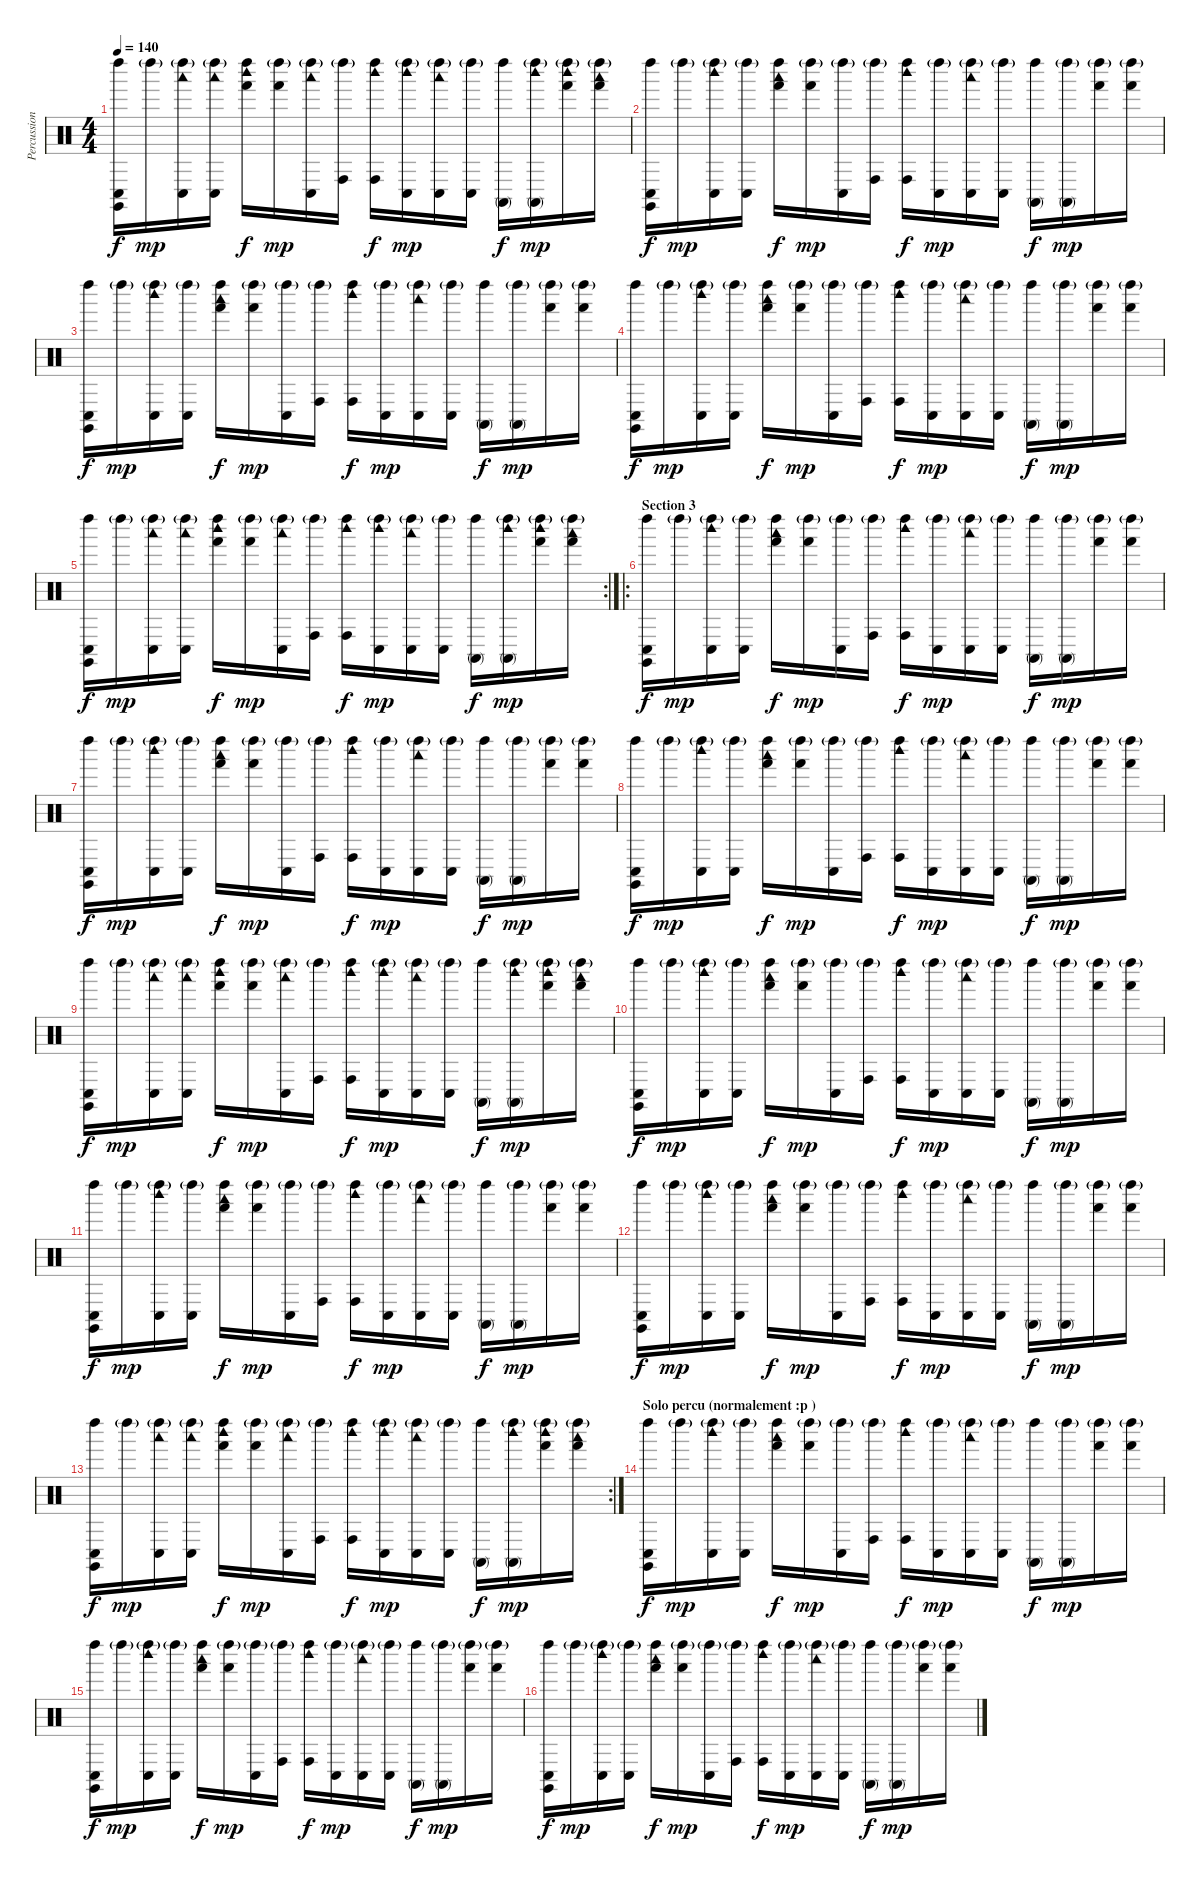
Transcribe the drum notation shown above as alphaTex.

\track ("Percussions" "Percussion") {instrument percussion}
\staff {score}
\articulation defaults
\ts (4 4)
\tempo 140
\clef neutral
\ks c
("Conga low (hit)" "Claves (hit)" "Left Maraca (hit)").16{dy f} "Left Maraca (hit)"{g}.16{dy mp} ("Conga low (hit)" "Woodblock low (hit)" "Left Maraca (hit)"{g}).16 ("Conga low (hit)" "Woodblock low (hit)" "Left Maraca (hit)"{g}).16 ("Hand (hit)" "Woodblock high (hit)" "Left Maraca (hit)").16{dy f} ("Hand (hit)" "Left Maraca (hit)"{g}).16{dy mp} ("Conga low (hit)" "Woodblock low (hit)" "Left Maraca (hit)"{g}).16 ("Conga high (hit)" "Left Maraca (hit)"{g}).16 ("Conga high (hit)" "Woodblock high (hit)" "Left Maraca (hit)").16{dy f} ("Conga low (hit)" "Woodblock high (hit)" "Left Maraca (hit)"{g}).16{dy mp} ("Conga low (hit)" "Woodblock low (hit)" "Left Maraca (hit)"{g}).16 ("Conga low (hit)" "Left Maraca (hit)"{g}).16 ("Conga high (mute)" "Left Maraca (hit)").16{dy f} ("Conga high (mute)" "Woodblock high (hit)" "Left Maraca (hit)"{g}).16{dy mp} ("Hand (hit)" "Woodblock high (hit)" "Left Maraca (hit)"{g}).16 ("Hand (hit)" "Woodblock low (hit)" "Left Maraca (hit)"{g}).16 |
("Conga low (hit)" "Claves (hit)" "Left Maraca (hit)").16{dy f} "Left Maraca (hit)"{g}.16{dy mp} ("Conga low (hit)" "Woodblock high (hit)" "Left Maraca (hit)"{g}).16 ("Conga low (hit)" "Left Maraca (hit)"{g}).16 ("Hand (hit)" "Woodblock low (hit)" "Left Maraca (hit)").16{dy f} ("Hand (hit)" "Left Maraca (hit)"{g}).16{dy mp} ("Conga low (hit)" "Left Maraca (hit)"{g}).16 ("Conga high (hit)" "Left Maraca (hit)"{g}).16 ("Conga high (hit)" "Woodblock high (hit)" "Left Maraca (hit)").16{dy f} ("Conga low (hit)" "Left Maraca (hit)"{g}).16{dy mp} ("Conga low (hit)" "Woodblock low (hit)" "Left Maraca (hit)"{g}).16 ("Conga low (hit)" "Left Maraca (hit)"{g}).16 ("Conga high (mute)" "Left Maraca (hit)").16{dy f} ("Conga high (mute)" "Left Maraca (hit)"{g}).16{dy mp} ("Hand (hit)" "Left Maraca (hit)"{g}).16 ("Hand (hit)" "Left Maraca (hit)"{g}).16 |
("Conga low (hit)" "Claves (hit)" "Left Maraca (hit)").16{dy f} "Left Maraca (hit)"{g}.16{dy mp} ("Conga low (hit)" "Woodblock high (hit)" "Left Maraca (hit)"{g}).16 ("Conga low (hit)" "Left Maraca (hit)"{g}).16 ("Hand (hit)" "Woodblock low (hit)" "Left Maraca (hit)").16{dy f} ("Hand (hit)" "Left Maraca (hit)"{g}).16{dy mp} ("Conga low (hit)" "Left Maraca (hit)"{g}).16 ("Conga high (hit)" "Left Maraca (hit)"{g}).16 ("Conga high (hit)" "Woodblock high (hit)" "Left Maraca (hit)").16{dy f} ("Conga low (hit)" "Left Maraca (hit)"{g}).16{dy mp} ("Conga low (hit)" "Woodblock low (hit)" "Left Maraca (hit)"{g}).16 ("Conga low (hit)" "Left Maraca (hit)"{g}).16 ("Conga high (mute)" "Left Maraca (hit)").16{dy f} ("Conga high (mute)" "Left Maraca (hit)"{g}).16{dy mp} ("Hand (hit)" "Left Maraca (hit)"{g}).16 ("Hand (hit)" "Left Maraca (hit)"{g}).16 |
("Conga low (hit)" "Claves (hit)" "Left Maraca (hit)").16{dy f} "Left Maraca (hit)"{g}.16{dy mp} ("Conga low (hit)" "Woodblock high (hit)" "Left Maraca (hit)"{g}).16 ("Conga low (hit)" "Left Maraca (hit)"{g}).16 ("Hand (hit)" "Woodblock low (hit)" "Left Maraca (hit)").16{dy f} ("Hand (hit)" "Left Maraca (hit)"{g}).16{dy mp} ("Conga low (hit)" "Left Maraca (hit)"{g}).16 ("Conga high (hit)" "Left Maraca (hit)"{g}).16 ("Conga high (hit)" "Woodblock high (hit)" "Left Maraca (hit)").16{dy f} ("Conga low (hit)" "Left Maraca (hit)"{g}).16{dy mp} ("Conga low (hit)" "Woodblock low (hit)" "Left Maraca (hit)"{g}).16 ("Conga low (hit)" "Left Maraca (hit)"{g}).16 ("Conga high (mute)" "Left Maraca (hit)").16{dy f} ("Conga high (mute)" "Left Maraca (hit)"{g}).16{dy mp} ("Hand (hit)" "Left Maraca (hit)"{g}).16 ("Hand (hit)" "Left Maraca (hit)"{g}).16 |
\rc 2
("Conga low (hit)" "Claves (hit)" "Left Maraca (hit)").16{dy f} "Left Maraca (hit)"{g}.16{dy mp} ("Conga low (hit)" "Woodblock low (hit)" "Left Maraca (hit)"{g}).16 ("Conga low (hit)" "Woodblock low (hit)" "Left Maraca (hit)"{g}).16 ("Hand (hit)" "Woodblock high (hit)" "Left Maraca (hit)").16{dy f} ("Hand (hit)" "Left Maraca (hit)"{g}).16{dy mp} ("Conga low (hit)" "Woodblock low (hit)" "Left Maraca (hit)"{g}).16 ("Conga high (hit)" "Left Maraca (hit)"{g}).16 ("Conga high (hit)" "Woodblock high (hit)" "Left Maraca (hit)").16{dy f} ("Conga low (hit)" "Woodblock high (hit)" "Left Maraca (hit)"{g}).16{dy mp} ("Conga low (hit)" "Woodblock low (hit)" "Left Maraca (hit)"{g}).16 ("Conga low (hit)" "Left Maraca (hit)"{g}).16 ("Conga high (mute)" "Left Maraca (hit)").16{dy f} ("Conga high (mute)" "Woodblock high (hit)" "Left Maraca (hit)"{g}).16{dy mp} ("Hand (hit)" "Woodblock high (hit)" "Left Maraca (hit)"{g}).16 ("Hand (hit)" "Woodblock low (hit)" "Left Maraca (hit)"{g}).16 |
\ro
\section ("" "Section 3")
("Conga low (hit)" "Claves (hit)" "Left Maraca (hit)").16{dy f} "Left Maraca (hit)"{g}.16{dy mp} ("Conga low (hit)" "Woodblock high (hit)" "Left Maraca (hit)"{g}).16 ("Conga low (hit)" "Left Maraca (hit)"{g}).16 ("Hand (hit)" "Woodblock low (hit)" "Left Maraca (hit)").16{dy f} ("Hand (hit)" "Left Maraca (hit)"{g}).16{dy mp} ("Conga low (hit)" "Left Maraca (hit)"{g}).16 ("Conga high (hit)" "Left Maraca (hit)"{g}).16 ("Conga high (hit)" "Woodblock high (hit)" "Left Maraca (hit)").16{dy f} ("Conga low (hit)" "Left Maraca (hit)"{g}).16{dy mp} ("Conga low (hit)" "Woodblock low (hit)" "Left Maraca (hit)"{g}).16 ("Conga low (hit)" "Left Maraca (hit)"{g}).16 ("Conga high (mute)" "Left Maraca (hit)").16{dy f} ("Conga high (mute)" "Left Maraca (hit)"{g}).16{dy mp} ("Hand (hit)" "Left Maraca (hit)"{g}).16 ("Hand (hit)" "Left Maraca (hit)"{g}).16 |
("Conga low (hit)" "Claves (hit)" "Left Maraca (hit)").16{dy f} "Left Maraca (hit)"{g}.16{dy mp} ("Conga low (hit)" "Woodblock high (hit)" "Left Maraca (hit)"{g}).16 ("Conga low (hit)" "Left Maraca (hit)"{g}).16 ("Hand (hit)" "Woodblock low (hit)" "Left Maraca (hit)").16{dy f} ("Hand (hit)" "Left Maraca (hit)"{g}).16{dy mp} ("Conga low (hit)" "Left Maraca (hit)"{g}).16 ("Conga high (hit)" "Left Maraca (hit)"{g}).16 ("Conga high (hit)" "Woodblock high (hit)" "Left Maraca (hit)").16{dy f} ("Conga low (hit)" "Left Maraca (hit)"{g}).16{dy mp} ("Conga low (hit)" "Woodblock low (hit)" "Left Maraca (hit)"{g}).16 ("Conga low (hit)" "Left Maraca (hit)"{g}).16 ("Conga high (mute)" "Left Maraca (hit)").16{dy f} ("Conga high (mute)" "Left Maraca (hit)"{g}).16{dy mp} ("Hand (hit)" "Left Maraca (hit)"{g}).16 ("Hand (hit)" "Left Maraca (hit)"{g}).16 |
("Conga low (hit)" "Claves (hit)" "Left Maraca (hit)").16{dy f} "Left Maraca (hit)"{g}.16{dy mp} ("Conga low (hit)" "Woodblock high (hit)" "Left Maraca (hit)"{g}).16 ("Conga low (hit)" "Left Maraca (hit)"{g}).16 ("Hand (hit)" "Woodblock low (hit)" "Left Maraca (hit)").16{dy f} ("Hand (hit)" "Left Maraca (hit)"{g}).16{dy mp} ("Conga low (hit)" "Left Maraca (hit)"{g}).16 ("Conga high (hit)" "Left Maraca (hit)"{g}).16 ("Conga high (hit)" "Woodblock high (hit)" "Left Maraca (hit)").16{dy f} ("Conga low (hit)" "Left Maraca (hit)"{g}).16{dy mp} ("Conga low (hit)" "Woodblock low (hit)" "Left Maraca (hit)"{g}).16 ("Conga low (hit)" "Left Maraca (hit)"{g}).16 ("Conga high (mute)" "Left Maraca (hit)").16{dy f} ("Conga high (mute)" "Left Maraca (hit)"{g}).16{dy mp} ("Hand (hit)" "Left Maraca (hit)"{g}).16 ("Hand (hit)" "Left Maraca (hit)"{g}).16 |
("Conga low (hit)" "Claves (hit)" "Left Maraca (hit)").16{dy f} "Left Maraca (hit)"{g}.16{dy mp} ("Conga low (hit)" "Woodblock low (hit)" "Left Maraca (hit)"{g}).16 ("Conga low (hit)" "Woodblock low (hit)" "Left Maraca (hit)"{g}).16 ("Hand (hit)" "Woodblock high (hit)" "Left Maraca (hit)").16{dy f} ("Hand (hit)" "Left Maraca (hit)"{g}).16{dy mp} ("Conga low (hit)" "Woodblock low (hit)" "Left Maraca (hit)"{g}).16 ("Conga high (hit)" "Left Maraca (hit)"{g}).16 ("Conga high (hit)" "Woodblock high (hit)" "Left Maraca (hit)").16{dy f} ("Conga low (hit)" "Woodblock high (hit)" "Left Maraca (hit)"{g}).16{dy mp} ("Conga low (hit)" "Woodblock low (hit)" "Left Maraca (hit)"{g}).16 ("Conga low (hit)" "Left Maraca (hit)"{g}).16 ("Conga high (mute)" "Left Maraca (hit)").16{dy f} ("Conga high (mute)" "Woodblock high (hit)" "Left Maraca (hit)"{g}).16{dy mp} ("Hand (hit)" "Woodblock high (hit)" "Left Maraca (hit)"{g}).16 ("Hand (hit)" "Woodblock low (hit)" "Left Maraca (hit)"{g}).16 |
("Conga low (hit)" "Claves (hit)" "Left Maraca (hit)").16{dy f} "Left Maraca (hit)"{g}.16{dy mp} ("Conga low (hit)" "Woodblock high (hit)" "Left Maraca (hit)"{g}).16 ("Conga low (hit)" "Left Maraca (hit)"{g}).16 ("Hand (hit)" "Woodblock low (hit)" "Left Maraca (hit)").16{dy f} ("Hand (hit)" "Left Maraca (hit)"{g}).16{dy mp} ("Conga low (hit)" "Left Maraca (hit)"{g}).16 ("Conga high (hit)" "Left Maraca (hit)"{g}).16 ("Conga high (hit)" "Woodblock high (hit)" "Left Maraca (hit)").16{dy f} ("Conga low (hit)" "Left Maraca (hit)"{g}).16{dy mp} ("Conga low (hit)" "Woodblock low (hit)" "Left Maraca (hit)"{g}).16 ("Conga low (hit)" "Left Maraca (hit)"{g}).16 ("Conga high (mute)" "Left Maraca (hit)").16{dy f} ("Conga high (mute)" "Left Maraca (hit)"{g}).16{dy mp} ("Hand (hit)" "Left Maraca (hit)"{g}).16 ("Hand (hit)" "Left Maraca (hit)"{g}).16 |
("Conga low (hit)" "Claves (hit)" "Left Maraca (hit)").16{dy f} "Left Maraca (hit)"{g}.16{dy mp} ("Conga low (hit)" "Woodblock high (hit)" "Left Maraca (hit)"{g}).16 ("Conga low (hit)" "Left Maraca (hit)"{g}).16 ("Hand (hit)" "Woodblock low (hit)" "Left Maraca (hit)").16{dy f} ("Hand (hit)" "Left Maraca (hit)"{g}).16{dy mp} ("Conga low (hit)" "Left Maraca (hit)"{g}).16 ("Conga high (hit)" "Left Maraca (hit)"{g}).16 ("Conga high (hit)" "Woodblock high (hit)" "Left Maraca (hit)").16{dy f} ("Conga low (hit)" "Left Maraca (hit)"{g}).16{dy mp} ("Conga low (hit)" "Woodblock low (hit)" "Left Maraca (hit)"{g}).16 ("Conga low (hit)" "Left Maraca (hit)"{g}).16 ("Conga high (mute)" "Left Maraca (hit)").16{dy f} ("Conga high (mute)" "Left Maraca (hit)"{g}).16{dy mp} ("Hand (hit)" "Left Maraca (hit)"{g}).16 ("Hand (hit)" "Left Maraca (hit)"{g}).16 |
("Conga low (hit)" "Claves (hit)" "Left Maraca (hit)").16{dy f} "Left Maraca (hit)"{g}.16{dy mp} ("Conga low (hit)" "Woodblock high (hit)" "Left Maraca (hit)"{g}).16 ("Conga low (hit)" "Left Maraca (hit)"{g}).16 ("Hand (hit)" "Woodblock low (hit)" "Left Maraca (hit)").16{dy f} ("Hand (hit)" "Left Maraca (hit)"{g}).16{dy mp} ("Conga low (hit)" "Left Maraca (hit)"{g}).16 ("Conga high (hit)" "Left Maraca (hit)"{g}).16 ("Conga high (hit)" "Woodblock high (hit)" "Left Maraca (hit)").16{dy f} ("Conga low (hit)" "Left Maraca (hit)"{g}).16{dy mp} ("Conga low (hit)" "Woodblock low (hit)" "Left Maraca (hit)"{g}).16 ("Conga low (hit)" "Left Maraca (hit)"{g}).16 ("Conga high (mute)" "Left Maraca (hit)").16{dy f} ("Conga high (mute)" "Left Maraca (hit)"{g}).16{dy mp} ("Hand (hit)" "Left Maraca (hit)"{g}).16 ("Hand (hit)" "Left Maraca (hit)"{g}).16 |
\rc 2
("Conga low (hit)" "Claves (hit)" "Left Maraca (hit)").16{dy f} "Left Maraca (hit)"{g}.16{dy mp} ("Conga low (hit)" "Woodblock low (hit)" "Left Maraca (hit)"{g}).16 ("Conga low (hit)" "Woodblock low (hit)" "Left Maraca (hit)"{g}).16 ("Hand (hit)" "Woodblock high (hit)" "Left Maraca (hit)").16{dy f} ("Hand (hit)" "Left Maraca (hit)"{g}).16{dy mp} ("Conga low (hit)" "Woodblock low (hit)" "Left Maraca (hit)"{g}).16 ("Conga high (hit)" "Left Maraca (hit)"{g}).16 ("Conga high (hit)" "Woodblock high (hit)" "Left Maraca (hit)").16{dy f} ("Conga low (hit)" "Woodblock high (hit)" "Left Maraca (hit)"{g}).16{dy mp} ("Conga low (hit)" "Woodblock low (hit)" "Left Maraca (hit)"{g}).16 ("Conga low (hit)" "Left Maraca (hit)"{g}).16 ("Conga high (mute)" "Left Maraca (hit)").16{dy f} ("Conga high (mute)" "Woodblock high (hit)" "Left Maraca (hit)"{g}).16{dy mp} ("Hand (hit)" "Woodblock high (hit)" "Left Maraca (hit)"{g}).16 ("Hand (hit)" "Woodblock low (hit)" "Left Maraca (hit)"{g}).16 |
\section ("" "Solo percu (normalement :p )")
("Conga low (hit)" "Claves (hit)" "Left Maraca (hit)").16{dy f} "Left Maraca (hit)"{g}.16{dy mp} ("Conga low (hit)" "Woodblock high (hit)" "Left Maraca (hit)"{g}).16 ("Conga low (hit)" "Left Maraca (hit)"{g}).16 ("Hand (hit)" "Woodblock low (hit)" "Left Maraca (hit)").16{dy f} ("Hand (hit)" "Left Maraca (hit)"{g}).16{dy mp} ("Conga low (hit)" "Left Maraca (hit)"{g}).16 ("Conga high (hit)" "Left Maraca (hit)"{g}).16 ("Conga high (hit)" "Woodblock high (hit)" "Left Maraca (hit)").16{dy f} ("Conga low (hit)" "Left Maraca (hit)"{g}).16{dy mp} ("Conga low (hit)" "Woodblock low (hit)" "Left Maraca (hit)"{g}).16 ("Conga low (hit)" "Left Maraca (hit)"{g}).16 ("Conga high (mute)" "Left Maraca (hit)").16{dy f} ("Conga high (mute)" "Left Maraca (hit)"{g}).16{dy mp} ("Hand (hit)" "Left Maraca (hit)"{g}).16 ("Hand (hit)" "Left Maraca (hit)"{g}).16 |
("Conga low (hit)" "Claves (hit)" "Left Maraca (hit)").16{dy f} "Left Maraca (hit)"{g}.16{dy mp} ("Conga low (hit)" "Woodblock high (hit)" "Left Maraca (hit)"{g}).16 ("Conga low (hit)" "Left Maraca (hit)"{g}).16 ("Hand (hit)" "Woodblock low (hit)" "Left Maraca (hit)").16{dy f} ("Hand (hit)" "Left Maraca (hit)"{g}).16{dy mp} ("Conga low (hit)" "Left Maraca (hit)"{g}).16 ("Conga high (hit)" "Left Maraca (hit)"{g}).16 ("Conga high (hit)" "Woodblock high (hit)" "Left Maraca (hit)").16{dy f} ("Conga low (hit)" "Left Maraca (hit)"{g}).16{dy mp} ("Conga low (hit)" "Woodblock low (hit)" "Left Maraca (hit)"{g}).16 ("Conga low (hit)" "Left Maraca (hit)"{g}).16 ("Conga high (mute)" "Left Maraca (hit)").16{dy f} ("Conga high (mute)" "Left Maraca (hit)"{g}).16{dy mp} ("Hand (hit)" "Left Maraca (hit)"{g}).16 ("Hand (hit)" "Left Maraca (hit)"{g}).16 |
("Conga low (hit)" "Claves (hit)" "Left Maraca (hit)").16{dy f} "Left Maraca (hit)"{g}.16{dy mp} ("Conga low (hit)" "Woodblock high (hit)" "Left Maraca (hit)"{g}).16 ("Conga low (hit)" "Left Maraca (hit)"{g}).16 ("Hand (hit)" "Woodblock low (hit)" "Left Maraca (hit)").16{dy f} ("Hand (hit)" "Left Maraca (hit)"{g}).16{dy mp} ("Conga low (hit)" "Left Maraca (hit)"{g}).16 ("Conga high (hit)" "Left Maraca (hit)"{g}).16 ("Conga high (hit)" "Woodblock high (hit)" "Left Maraca (hit)").16{dy f} ("Conga low (hit)" "Left Maraca (hit)"{g}).16{dy mp} ("Conga low (hit)" "Woodblock low (hit)" "Left Maraca (hit)"{g}).16 ("Conga low (hit)" "Left Maraca (hit)"{g}).16 ("Conga high (mute)" "Left Maraca (hit)").16{dy f} ("Conga high (mute)" "Left Maraca (hit)"{g}).16{dy mp} ("Hand (hit)" "Left Maraca (hit)"{g}).16 ("Hand (hit)" "Left Maraca (hit)"{g}).16
